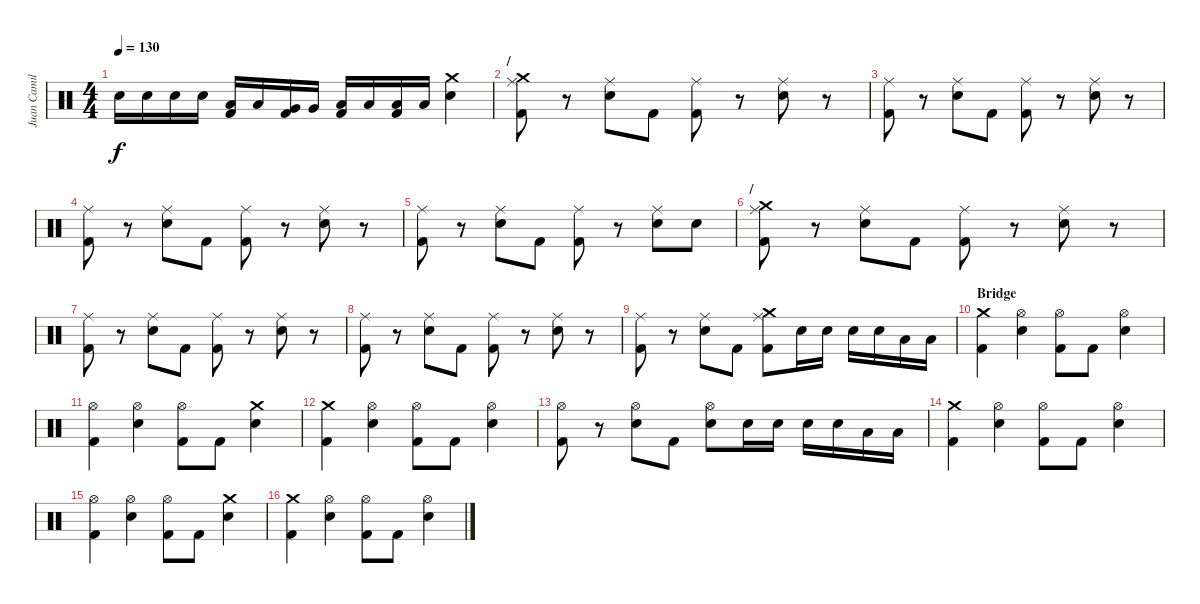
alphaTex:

\track ("Juan Camilo" "Juan Camil") {instrument percussion}
\staff {score}
\articulation defaults
\ts (4 4)
\tempo 130
\clef neutral
\ks c "Electric Snare (hit)".16{dy f} "Electric Snare (hit)".16 "Electric Snare (hit)".16 "Electric Snare (hit)".16
("Low Tom (hit)" "Kick (hit) 2").16 "Low Tom (hit)".16 ("Very Low Tom (hit)" "Kick (hit) 2").16 "Very Low Tom (hit)".16 ("Low Floor Tom (hit)" "Kick (hit) 2").16 "Low Floor Tom (hit)".16 ("Low Floor Tom (hit)" "Kick (hit) 2").16 "Low Floor Tom (hit)".16 ("Crash medium (hit)" "Electric Snare (hit)").4 |
\section ("" "/")
("Ride (middle)" "Kick (hit) 2" "Crash medium (hit)").8 r.8 ("Ride (middle)" "Electric Snare (hit)").8 "Kick (hit) 2".8 ("Ride (middle)" "Kick (hit) 2").8 r.8 ("Ride (middle)" "Electric Snare (hit)").8 r.8 |
("Ride (middle)" "Kick (hit) 2").8 r.8 ("Ride (middle)" "Electric Snare (hit)").8 "Kick (hit) 2".8 ("Ride (middle)" "Kick (hit) 2").8 r.8 ("Ride (middle)" "Electric Snare (hit)").8 r.8 |
("Ride (middle)" "Kick (hit) 2").8 r.8 ("Ride (middle)" "Electric Snare (hit)").8 "Kick (hit) 2".8 ("Ride (middle)" "Kick (hit) 2").8 r.8 ("Ride (middle)" "Electric Snare (hit)").8 r.8 |
("Ride (middle)" "Kick (hit) 2").8 r.8 ("Ride (middle)" "Electric Snare (hit)").8 "Kick (hit) 2".8 ("Ride (middle)" "Kick (hit) 2").8 r.8 ("Ride (middle)" "Electric Snare (hit)").8 "Electric Snare (hit)".8 |
\section ("" "/")
("Crash medium (hit)" "Ride (middle)" "Kick (hit) 2").8 r.8 ("Ride (middle)" "Electric Snare (hit)").8 "Kick (hit) 2".8 ("Ride (middle)" "Kick (hit) 2").8 r.8 ("Ride (middle)" "Electric Snare (hit)").8 r.8 |
("Ride (middle)" "Kick (hit) 2").8 r.8 ("Ride (middle)" "Electric Snare (hit)").8 "Kick (hit) 2".8 ("Ride (middle)" "Kick (hit) 2").8 r.8 ("Ride (middle)" "Electric Snare (hit)").8 r.8 |
("Ride (middle)" "Kick (hit) 2").8 r.8 ("Ride (middle)" "Electric Snare (hit)").8 "Kick (hit) 2".8 ("Ride (middle)" "Kick (hit) 2").8 r.8 ("Ride (middle)" "Electric Snare (hit)").8 r.8 |
("Ride (middle)" "Kick (hit) 2").8 r.8 ("Ride (middle)" "Electric Snare (hit)").8 "Kick (hit) 2".8 ("Crash medium (hit)" "Ride (middle)" "Kick (hit) 2").8 "Electric Snare (hit)".16 "Electric Snare (hit)".16 "Electric Snare (hit)".16 "Electric Snare (hit)".16 "Low Tom (hit)".16 "Low Floor Tom (hit)".16 |
\section ("" "Bridge")
("Crash medium (hit)" "Kick (hit) 2").4 ("Hi-Hat (open)" "Electric Snare (hit)").4 ("Hi-Hat (open)" "Kick (hit) 2").8 "Kick (hit) 2".8 ("Hi-Hat (open)" "Electric Snare (hit)").4 |
("Hi-Hat (open)" "Kick (hit) 2").4 ("Hi-Hat (open)" "Electric Snare (hit)").4 ("Hi-Hat (open)" "Kick (hit) 2").8 "Kick (hit) 2".8 ("Crash medium (hit)" "Electric Snare (hit)").4 |
("Crash medium (hit)" "Kick (hit) 2").4 ("Hi-Hat (open)" "Electric Snare (hit)").4 ("Hi-Hat (open)" "Kick (hit) 2").8 "Kick (hit) 2".8 ("Hi-Hat (open)" "Electric Snare (hit)").4 |
("Hi-Hat (open)" "Kick (hit) 2").8 r.8 ("Hi-Hat (open)" "Electric Snare (hit)").8 "Kick (hit) 2".8 ("Hi-Hat (open)" "Electric Snare (hit)").8 "Electric Snare (hit)".16 "Electric Snare (hit)".16 "Electric Snare (hit)".16 "Electric Snare (hit)".16 "Low Tom (hit)".16 "Low Floor Tom (hit)".16 |
("Crash medium (hit)" "Kick (hit) 2").4 ("Hi-Hat (open)" "Electric Snare (hit)").4 ("Hi-Hat (open)" "Kick (hit) 2").8 "Kick (hit) 2".8 ("Hi-Hat (open)" "Electric Snare (hit)").4 |
("Hi-Hat (open)" "Kick (hit) 2").4 ("Hi-Hat (open)" "Electric Snare (hit)").4 ("Hi-Hat (open)" "Kick (hit) 2").8 "Kick (hit) 2".8 ("Crash medium (hit)" "Electric Snare (hit)").4 |
("Crash medium (hit)" "Kick (hit) 2").4 ("Hi-Hat (open)" "Electric Snare (hit)").4 ("Hi-Hat (open)" "Kick (hit) 2").8 "Kick (hit) 2".8 ("Hi-Hat (open)" "Electric Snare (hit)").4
